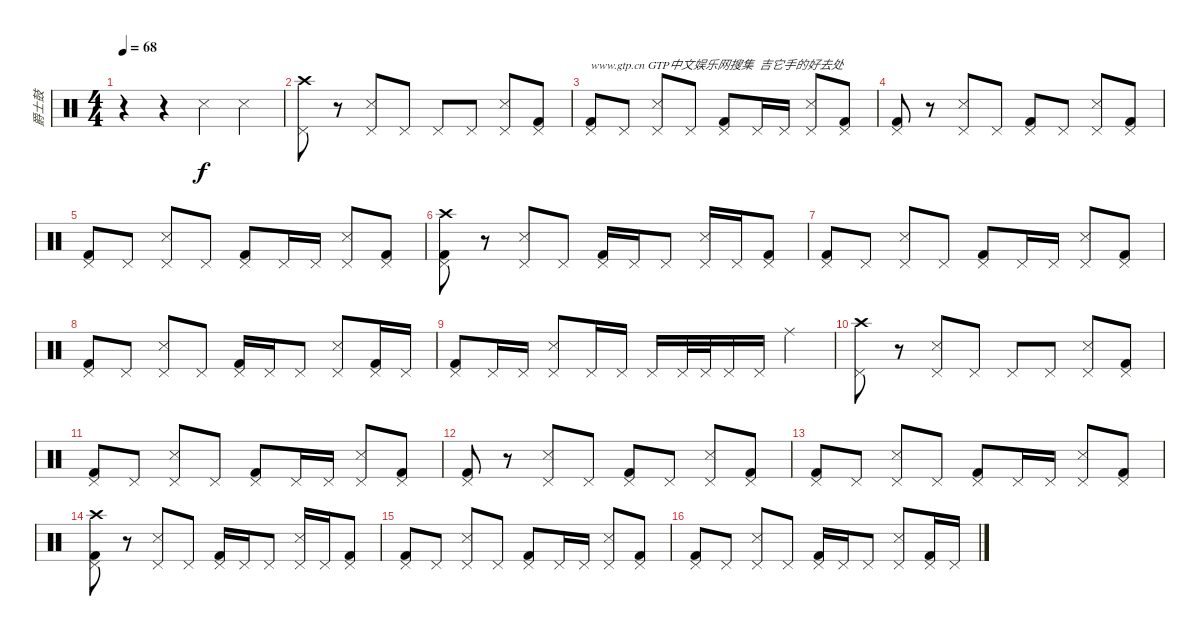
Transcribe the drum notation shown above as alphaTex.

\track ("爵士鼓" "爵士鼓") {instrument percussion}
\staff {score}
\articulation defaults
\ts (4 4)
\tempo 68
\clef neutral
\ks c
r.4{dy f} r.4 "Snare (side stick) 3".4 "Snare (side stick) 3".4 |
("Crash high (hit)" "Pedal Hi-Hat (hit)").8 r.8 ("Snare (side stick) 3" "Pedal Hi-Hat (hit)").8 "Pedal Hi-Hat (hit)".8 "Pedal Hi-Hat (hit)".8 "Pedal Hi-Hat (hit)".8 ("Snare (side stick) 3" "Pedal Hi-Hat (hit)").8 ("Kick (hit) 2" "Pedal Hi-Hat (hit)").8 |
("Kick (hit) 2" "Pedal Hi-Hat (hit)").8{txt "www.gtp.cn GTP中文娱乐网搜集  吉它手的好去处"} "Pedal Hi-Hat (hit)".8 ("Snare (side stick) 3" "Pedal Hi-Hat (hit)").8 "Pedal Hi-Hat (hit)".8 ("Kick (hit) 2" "Pedal Hi-Hat (hit)").8 "Pedal Hi-Hat (hit)".16 "Pedal Hi-Hat (hit)".16 ("Snare (side stick) 3" "Pedal Hi-Hat (hit)").8 ("Kick (hit) 2" "Pedal Hi-Hat (hit)").8 |
("Kick (hit) 2" "Pedal Hi-Hat (hit)").8 r.8 ("Snare (side stick) 3" "Pedal Hi-Hat (hit)").8 "Pedal Hi-Hat (hit)".8 ("Kick (hit) 2" "Pedal Hi-Hat (hit)").8 "Pedal Hi-Hat (hit)".8 ("Snare (side stick) 3" "Pedal Hi-Hat (hit)").8 ("Kick (hit) 2" "Pedal Hi-Hat (hit)").8 |
("Kick (hit) 2" "Pedal Hi-Hat (hit)").8 "Pedal Hi-Hat (hit)".8 ("Snare (side stick) 3" "Pedal Hi-Hat (hit)").8 "Pedal Hi-Hat (hit)".8 ("Kick (hit) 2" "Pedal Hi-Hat (hit)").8 "Pedal Hi-Hat (hit)".16 "Pedal Hi-Hat (hit)".16 ("Snare (side stick) 3" "Pedal Hi-Hat (hit)").8 ("Kick (hit) 2" "Pedal Hi-Hat (hit)").8 |
("Crash high (hit)" "Kick (hit) 2" "Pedal Hi-Hat (hit)").8 r.8 ("Snare (side stick) 3" "Pedal Hi-Hat (hit)").8 "Pedal Hi-Hat (hit)".8 ("Kick (hit) 2" "Pedal Hi-Hat (hit)").16 "Pedal Hi-Hat (hit)".16 "Pedal Hi-Hat (hit)".8 ("Snare (side stick) 3" "Pedal Hi-Hat (hit)").16 "Pedal Hi-Hat (hit)".16 ("Kick (hit) 2" "Pedal Hi-Hat (hit)").8 |
("Kick (hit) 2" "Pedal Hi-Hat (hit)").8 "Pedal Hi-Hat (hit)".8 ("Snare (side stick) 3" "Pedal Hi-Hat (hit)").8 "Pedal Hi-Hat (hit)".8 ("Kick (hit) 2" "Pedal Hi-Hat (hit)").8 "Pedal Hi-Hat (hit)".16 "Pedal Hi-Hat (hit)".16 ("Snare (side stick) 3" "Pedal Hi-Hat (hit)").8 ("Kick (hit) 2" "Pedal Hi-Hat (hit)").8 |
("Kick (hit) 2" "Pedal Hi-Hat (hit)").8 "Pedal Hi-Hat (hit)".8 ("Snare (side stick) 3" "Pedal Hi-Hat (hit)").8 "Pedal Hi-Hat (hit)".8 ("Kick (hit) 2" "Pedal Hi-Hat (hit)").16 "Pedal Hi-Hat (hit)".16 "Pedal Hi-Hat (hit)".8 ("Snare (side stick) 3" "Pedal Hi-Hat (hit)").8 ("Kick (hit) 2" "Pedal Hi-Hat (hit)").16 "Pedal Hi-Hat (hit)".16 |
("Kick (hit) 2" "Pedal Hi-Hat (hit)").8 "Pedal Hi-Hat (hit)".16 "Pedal Hi-Hat (hit)".16 ("Snare (side stick) 3" "Pedal Hi-Hat (hit)").8 "Pedal Hi-Hat (hit)".16 "Pedal Hi-Hat (hit)".16 "Pedal Hi-Hat (hit)".16 "Pedal Hi-Hat (hit)".32 "Pedal Hi-Hat (hit)".32 "Pedal Hi-Hat (hit)".16 "Pedal Hi-Hat (hit)".16 "Ride (middle)".4 |
("Crash high (hit)" "Pedal Hi-Hat (hit)").8 r.8 ("Snare (side stick) 3" "Pedal Hi-Hat (hit)").8 "Pedal Hi-Hat (hit)".8 "Pedal Hi-Hat (hit)".8 "Pedal Hi-Hat (hit)".8 ("Snare (side stick) 3" "Pedal Hi-Hat (hit)").8 ("Kick (hit) 2" "Pedal Hi-Hat (hit)").8 |
("Kick (hit) 2" "Pedal Hi-Hat (hit)").8 "Pedal Hi-Hat (hit)".8 ("Snare (side stick) 3" "Pedal Hi-Hat (hit)").8 "Pedal Hi-Hat (hit)".8 ("Kick (hit) 2" "Pedal Hi-Hat (hit)").8 "Pedal Hi-Hat (hit)".16 "Pedal Hi-Hat (hit)".16 ("Snare (side stick) 3" "Pedal Hi-Hat (hit)").8 ("Kick (hit) 2" "Pedal Hi-Hat (hit)").8 |
("Kick (hit) 2" "Pedal Hi-Hat (hit)").8 r.8 ("Snare (side stick) 3" "Pedal Hi-Hat (hit)").8 "Pedal Hi-Hat (hit)".8 ("Kick (hit) 2" "Pedal Hi-Hat (hit)").8 "Pedal Hi-Hat (hit)".8 ("Snare (side stick) 3" "Pedal Hi-Hat (hit)").8 ("Kick (hit) 2" "Pedal Hi-Hat (hit)").8 |
("Kick (hit) 2" "Pedal Hi-Hat (hit)").8 "Pedal Hi-Hat (hit)".8 ("Snare (side stick) 3" "Pedal Hi-Hat (hit)").8 "Pedal Hi-Hat (hit)".8 ("Kick (hit) 2" "Pedal Hi-Hat (hit)").8 "Pedal Hi-Hat (hit)".16 "Pedal Hi-Hat (hit)".16 ("Snare (side stick) 3" "Pedal Hi-Hat (hit)").8 ("Kick (hit) 2" "Pedal Hi-Hat (hit)").8 |
("Crash high (hit)" "Kick (hit) 2" "Pedal Hi-Hat (hit)").8 r.8 ("Snare (side stick) 3" "Pedal Hi-Hat (hit)").8 "Pedal Hi-Hat (hit)".8 ("Kick (hit) 2" "Pedal Hi-Hat (hit)").16 "Pedal Hi-Hat (hit)".16 "Pedal Hi-Hat (hit)".8 ("Snare (side stick) 3" "Pedal Hi-Hat (hit)").16 "Pedal Hi-Hat (hit)".16 ("Kick (hit) 2" "Pedal Hi-Hat (hit)").8 |
("Kick (hit) 2" "Pedal Hi-Hat (hit)").8 "Pedal Hi-Hat (hit)".8 ("Snare (side stick) 3" "Pedal Hi-Hat (hit)").8 "Pedal Hi-Hat (hit)".8 ("Kick (hit) 2" "Pedal Hi-Hat (hit)").8 "Pedal Hi-Hat (hit)".16 "Pedal Hi-Hat (hit)".16 ("Snare (side stick) 3" "Pedal Hi-Hat (hit)").8 ("Kick (hit) 2" "Pedal Hi-Hat (hit)").8 |
("Kick (hit) 2" "Pedal Hi-Hat (hit)").8 "Pedal Hi-Hat (hit)".8 ("Snare (side stick) 3" "Pedal Hi-Hat (hit)").8 "Pedal Hi-Hat (hit)".8 ("Kick (hit) 2" "Pedal Hi-Hat (hit)").16 "Pedal Hi-Hat (hit)".16 "Pedal Hi-Hat (hit)".8 ("Snare (side stick) 3" "Pedal Hi-Hat (hit)").8 ("Kick (hit) 2" "Pedal Hi-Hat (hit)").16 "Pedal Hi-Hat (hit)".16
